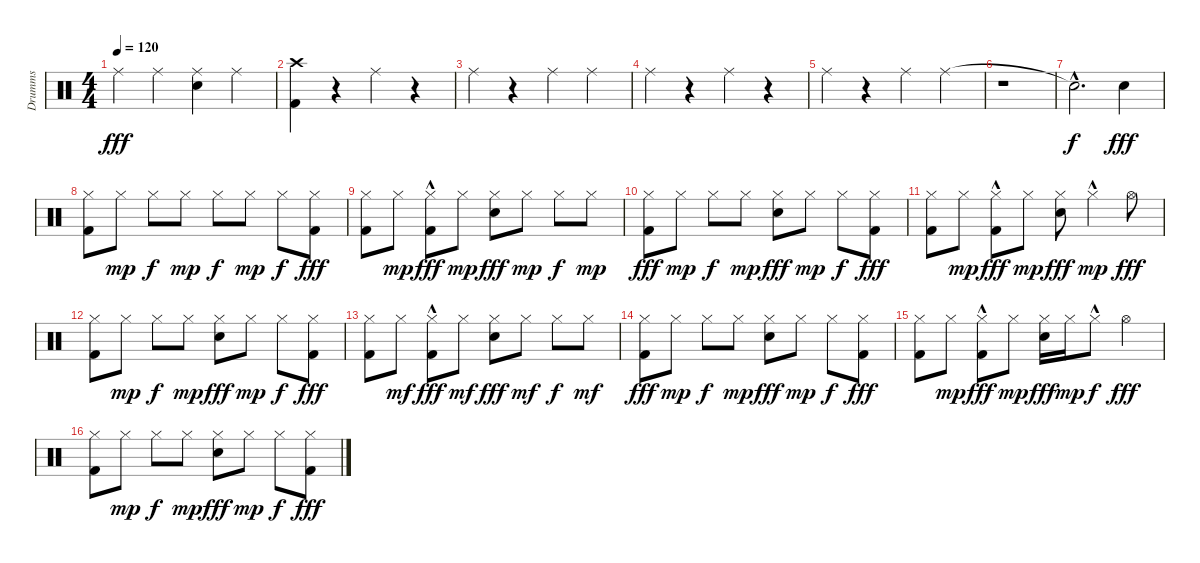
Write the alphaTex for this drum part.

\track ("Drumms" "Drumms") {instrument percussion}
\staff {score}
\articulation defaults
\ts (4 4)
\tempo 120
\clef neutral
\ks c "Ride (middle)".4{dy fff} "Ride (middle)".4
("Ride (middle)" "Snare (hit) 2").4 "Ride (middle)".4 |
("Crash high (hit)" "Kick (hit) 2").4 r.4 "Ride (middle)".4 r.4 |
"Ride (middle)".4 r.4 "Ride (middle)".4 "Ride (middle)".4 |
"Ride (middle)".4 r.4 "Ride (middle)".4 r.4 |
"Ride (middle)".4 r.4 "Ride (middle)".4 "Ride (middle)".4 |
r.1 |
"Snare (hit)"{hac t}.2{d dy f} "Snare (hit) 2".4{dy fff} |
\section ("" "")
("Hi-Hat (closed)" "Kick (hit) 2").8 "Hi-Hat (closed)".8{dy mp} "Hi-Hat (closed)".8{dy f} "Hi-Hat (closed)".8{dy mp} "Hi-Hat (closed)".8{dy f} "Hi-Hat (closed)".8{dy mp} "Hi-Hat (closed)".8{dy f} ("Hi-Hat (closed)" "Kick (hit) 2").8{dy fff} |
("Hi-Hat (closed)" "Kick (hit) 2").8 "Hi-Hat (closed)".8{dy mp} ("Hi-Hat (closed)" "Kick (hit) 2"{hac}).8{dy fff} "Hi-Hat (closed)".8{dy mp} ("Hi-Hat (closed)" "Snare (hit) 2").8{dy fff} "Hi-Hat (closed)".8{dy mp} "Hi-Hat (closed)".8{dy f} "Hi-Hat (closed)".8{dy mp} |
("Hi-Hat (closed)" "Kick (hit) 2").8{dy fff} "Hi-Hat (closed)".8{dy mp} "Hi-Hat (closed)".8{dy f} "Hi-Hat (closed)".8{dy mp} ("Hi-Hat (closed)" "Snare (hit) 2").8{dy fff} "Hi-Hat (closed)".8{dy mp} "Hi-Hat (closed)".8{dy f} ("Hi-Hat (closed)" "Kick (hit) 2").8{dy fff} |
("Hi-Hat (closed)" "Kick (hit) 2").8 "Hi-Hat (closed)".8{dy mp} ("Hi-Hat (closed)" "Kick (hit) 2"{hac}).8{dy fff} "Hi-Hat (closed)".8{dy mp} ("Hi-Hat (closed)" "Snare (hit) 2").8{dy fff} "Hi-Hat (closed)"{hac}.4{dy mp} "Hi-Hat (open)".8{dy fff} |
("Hi-Hat (closed)" "Kick (hit) 2").8 "Hi-Hat (closed)".8{dy mp} "Hi-Hat (closed)".8{dy f} "Hi-Hat (closed)".8{dy mp} ("Hi-Hat (closed)" "Snare (hit) 2").8{dy fff} "Hi-Hat (closed)".8{dy mp} "Hi-Hat (closed)".8{dy f} ("Hi-Hat (closed)" "Kick (hit) 2").8{dy fff} |
("Hi-Hat (closed)" "Kick (hit) 2").8 "Hi-Hat (closed)".8{dy mf} ("Hi-Hat (closed)" "Kick (hit) 2"{hac}).8{dy fff} "Hi-Hat (closed)".8{dy mf} ("Hi-Hat (closed)" "Snare (hit) 2").8{dy fff} "Hi-Hat (closed)".8{dy mf} "Hi-Hat (closed)".8{dy f} "Hi-Hat (closed)".8{dy mf} |
("Hi-Hat (closed)" "Kick (hit) 2").8{dy fff} "Hi-Hat (closed)".8{dy mp} "Hi-Hat (closed)".8{dy f} "Hi-Hat (closed)".8{dy mp} ("Hi-Hat (closed)" "Snare (hit) 2").8{dy fff} "Hi-Hat (closed)".8{dy mp} "Hi-Hat (closed)".8{dy f} ("Hi-Hat (closed)" "Kick (hit) 2").8{dy fff} |
("Hi-Hat (closed)" "Kick (hit) 2").8 "Hi-Hat (closed)".8{dy mp} ("Hi-Hat (closed)" "Kick (hit) 2"{hac}).8{dy fff} "Hi-Hat (closed)".8{dy mp} ("Hi-Hat (closed)" "Snare (hit) 2").16{dy fff} "Hi-Hat (closed)".16{dy mp} "Hi-Hat (closed)"{hac}.8{dy f} "Hi-Hat (open)".4{dy fff} |
("Hi-Hat (closed)" "Kick (hit) 2").8 "Hi-Hat (closed)".8{dy mp} "Hi-Hat (closed)".8{dy f} "Hi-Hat (closed)".8{dy mp} ("Hi-Hat (closed)" "Snare (hit) 2").8{dy fff} "Hi-Hat (closed)".8{dy mp} "Hi-Hat (closed)".8{dy f} ("Hi-Hat (closed)" "Kick (hit) 2").8{dy fff}
